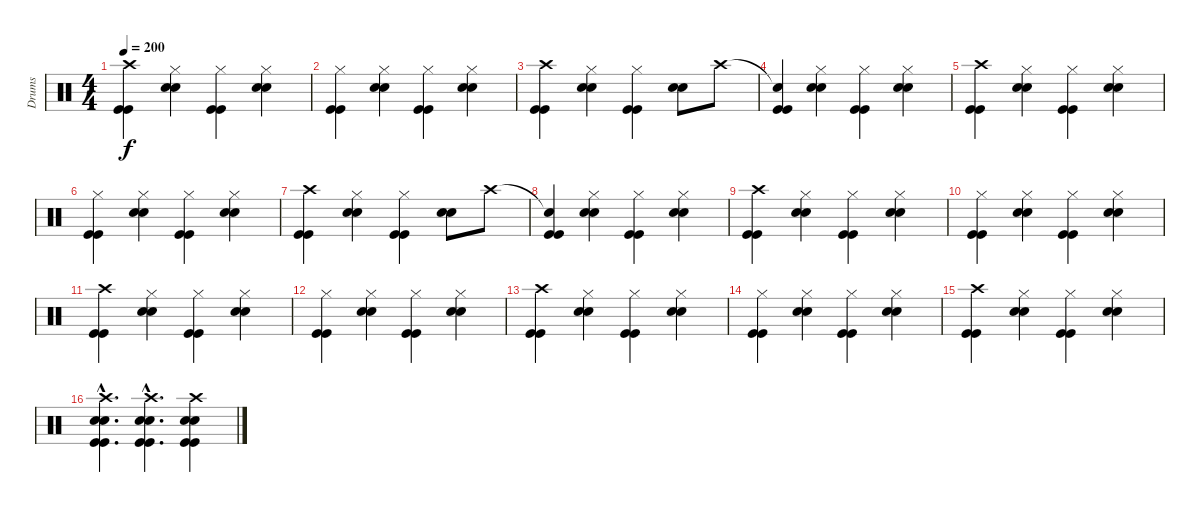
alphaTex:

\track ("Drums" "Drums") {instrument percussion}
\staff {score}
\articulation defaults
\ts (4 4)
\tempo 200
\clef neutral
\ks c
("Crash high (hit)" "Kick (hit)" "Kick (hit)").4{dy f} ("Hi-Hat (closed)" "Electric Snare (hit)" "Electric Snare (hit)").4 ("Hi-Hat (closed)" "Kick (hit)" "Kick (hit)").4 ("Hi-Hat (closed)" "Electric Snare (hit)" "Electric Snare (hit)").4 |
("Hi-Hat (closed)" "Kick (hit)" "Kick (hit)").4 ("Hi-Hat (closed)" "Electric Snare (hit)" "Electric Snare (hit)").4 ("Hi-Hat (closed)" "Kick (hit)" "Kick (hit)").4 ("Hi-Hat (closed)" "Electric Snare (hit)" "Electric Snare (hit)").4 |
("Crash high (hit)" "Kick (hit)" "Kick (hit)").4 ("Hi-Hat (closed)" "Electric Snare (hit)" "Electric Snare (hit)").4 ("Hi-Hat (closed)" "Kick (hit)" "Kick (hit)").4 ("Electric Snare (hit)" "Electric Snare (hit)").8 "Crash high (hit)".8 |
("Snare (hit)"{t} "Kick (hit)" "Kick (hit)").4 ("Hi-Hat (closed)" "Electric Snare (hit)" "Electric Snare (hit)").4 ("Hi-Hat (closed)" "Kick (hit)" "Kick (hit)").4 ("Hi-Hat (closed)" "Electric Snare (hit)" "Electric Snare (hit)").4 |
("Crash high (hit)" "Kick (hit)" "Kick (hit)").4 ("Hi-Hat (closed)" "Electric Snare (hit)" "Electric Snare (hit)").4 ("Hi-Hat (closed)" "Kick (hit)" "Kick (hit)").4 ("Hi-Hat (closed)" "Electric Snare (hit)" "Electric Snare (hit)").4 |
("Hi-Hat (closed)" "Kick (hit)" "Kick (hit)").4 ("Hi-Hat (closed)" "Electric Snare (hit)" "Electric Snare (hit)").4 ("Hi-Hat (closed)" "Kick (hit)" "Kick (hit)").4 ("Hi-Hat (closed)" "Electric Snare (hit)" "Electric Snare (hit)").4 |
("Crash high (hit)" "Kick (hit)" "Kick (hit)").4 ("Hi-Hat (closed)" "Electric Snare (hit)" "Electric Snare (hit)").4 ("Hi-Hat (closed)" "Kick (hit)" "Kick (hit)").4 ("Electric Snare (hit)" "Electric Snare (hit)").8 "Crash high (hit)".8 |
("Snare (hit)"{t} "Kick (hit)" "Kick (hit)").4 ("Hi-Hat (closed)" "Electric Snare (hit)" "Electric Snare (hit)").4 ("Hi-Hat (closed)" "Kick (hit)" "Kick (hit)").4 ("Hi-Hat (closed)" "Electric Snare (hit)" "Electric Snare (hit)").4 |
("Crash high (hit)" "Kick (hit)" "Kick (hit)").4 ("Hi-Hat (closed)" "Electric Snare (hit)" "Electric Snare (hit)").4 ("Hi-Hat (closed)" "Kick (hit)" "Kick (hit)").4 ("Hi-Hat (closed)" "Electric Snare (hit)" "Electric Snare (hit)").4 |
("Hi-Hat (closed)" "Kick (hit)" "Kick (hit)").4 ("Hi-Hat (closed)" "Electric Snare (hit)" "Electric Snare (hit)").4 ("Hi-Hat (closed)" "Kick (hit)" "Kick (hit)").4 ("Hi-Hat (closed)" "Electric Snare (hit)" "Electric Snare (hit)").4 |
("Crash high (hit)" "Kick (hit)" "Kick (hit)").4 ("Hi-Hat (closed)" "Electric Snare (hit)" "Electric Snare (hit)").4 ("Hi-Hat (closed)" "Kick (hit)" "Kick (hit)").4 ("Hi-Hat (closed)" "Electric Snare (hit)" "Electric Snare (hit)").4 |
("Hi-Hat (closed)" "Kick (hit)" "Kick (hit)").4 ("Hi-Hat (closed)" "Electric Snare (hit)" "Electric Snare (hit)").4 ("Hi-Hat (closed)" "Kick (hit)" "Kick (hit)").4 ("Hi-Hat (closed)" "Electric Snare (hit)" "Electric Snare (hit)").4 |
("Crash high (hit)" "Kick (hit)" "Kick (hit)").4 ("Hi-Hat (closed)" "Electric Snare (hit)" "Electric Snare (hit)").4 ("Hi-Hat (closed)" "Kick (hit)" "Kick (hit)").4 ("Hi-Hat (closed)" "Electric Snare (hit)" "Electric Snare (hit)").4 |
("Hi-Hat (closed)" "Kick (hit)" "Kick (hit)").4 ("Hi-Hat (closed)" "Electric Snare (hit)" "Electric Snare (hit)").4 ("Hi-Hat (closed)" "Kick (hit)" "Kick (hit)").4 ("Hi-Hat (closed)" "Electric Snare (hit)" "Electric Snare (hit)").4 |
("Crash high (hit)" "Kick (hit)" "Kick (hit)").4 ("Hi-Hat (closed)" "Electric Snare (hit)" "Electric Snare (hit)").4 ("Hi-Hat (closed)" "Kick (hit)" "Kick (hit)").4 ("Hi-Hat (closed)" "Electric Snare (hit)" "Electric Snare (hit)").4 |
("Crash high (hit)"{hac} "Electric Snare (hit)"{hac} "Electric Snare (hit)"{hac} "Kick (hit)"{hac} "Kick (hit)"{hac}).4{d} ("Crash high (hit)"{hac} "Electric Snare (hit)"{hac} "Electric Snare (hit)"{hac} "Kick (hit)"{hac} "Kick (hit)"{hac}).4{d} ("Crash high (hit)" "Electric Snare (hit)" "Electric Snare (hit)" "Kick (hit)" "Kick (hit)").4
